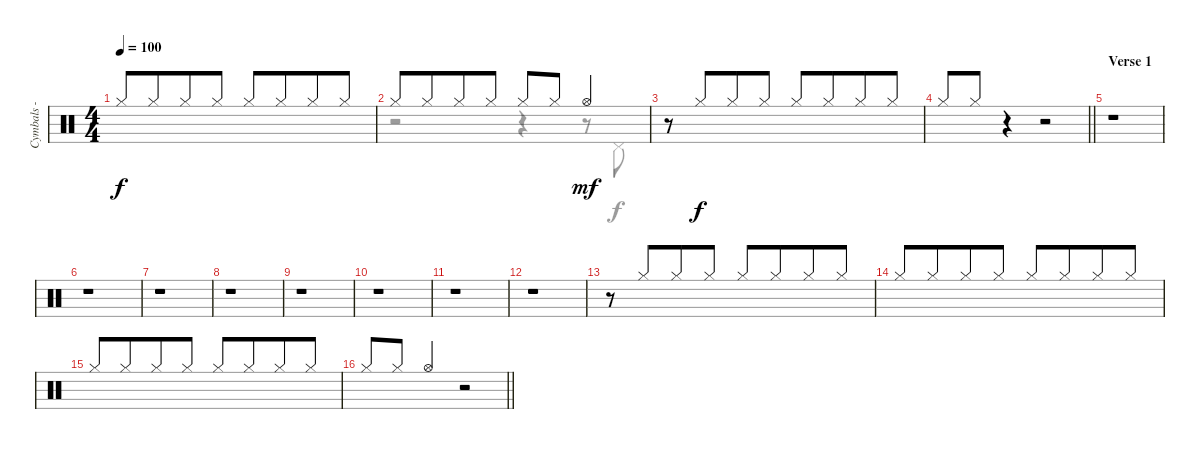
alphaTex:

\track ("Cymbals - Hi-Hat" "Cymbals - ") {instrument percussion}
\staff {score}
\articulation defaults
\voice
\ts (4 4)
\tempo 100
\clef neutral
\ks c "Hi-Hat (closed)".8{dy f beam Up} "Hi-Hat (closed)".8{beam Up beam merge} "Hi-Hat (closed)".8{beam Up} "Hi-Hat (closed)".8{beam Up} "Hi-Hat (closed)".8{beam Up} "Hi-Hat (closed)".8{beam Up beam merge} "Hi-Hat (closed)".8{beam Up} "Hi-Hat (closed)".8{beam Up}
|
"Hi-Hat (closed)".8 "Hi-Hat (closed)".8{beam merge} "Hi-Hat (closed)".8 "Hi-Hat (closed)".8 "Hi-Hat (closed)".8 "Hi-Hat (closed)".8{beam merge} "Hi-Hat (open)".4{dy mf} |
r.8 "Hi-Hat (closed)".8{dy f beam Up beam merge} "Hi-Hat (closed)".8{beam Up} "Hi-Hat (closed)".8{beam Up} "Hi-Hat (closed)".8{beam Up} "Hi-Hat (closed)".8{beam Up beam merge} "Hi-Hat (closed)".8{beam Up} "Hi-Hat (closed)".8{beam Up} |
\barLineRight lightlight "Hi-Hat (closed)".8{beam Up} "Hi-Hat (closed)".8{beam Up}
r.4 r.2 |
\section ("" "Verse 1")
r.1 |
r.1 |
r.1 |
r.1 |
r.1 |
r.1 |
r.1 |
r.1 |
r.8 "Hi-Hat (closed)".8{beam Up beam merge} "Hi-Hat (closed)".8{beam Up} "Hi-Hat (closed)".8{beam Up} "Hi-Hat (closed)".8{beam Up} "Hi-Hat (closed)".8{beam Up beam merge} "Hi-Hat (closed)".8{beam Up} "Hi-Hat (closed)".8{beam Up} |
"Hi-Hat (closed)".8{beam Up} "Hi-Hat (closed)".8{beam Up beam merge} "Hi-Hat (closed)".8{beam Up} "Hi-Hat (closed)".8{beam Up} "Hi-Hat (closed)".8{beam Up} "Hi-Hat (closed)".8{beam Up beam merge} "Hi-Hat (closed)".8{beam Up} "Hi-Hat (closed)".8{beam Up} |
"Hi-Hat (closed)".8{beam Up} "Hi-Hat (closed)".8{beam Up beam merge} "Hi-Hat (closed)".8{beam Up} "Hi-Hat (closed)".8{beam Up} "Hi-Hat (closed)".8{beam Up} "Hi-Hat (closed)".8{beam Up beam merge} "Hi-Hat (closed)".8{beam Up} "Hi-Hat (closed)".8{beam Up} |
\barLineRight lightlight "Hi-Hat (closed)".8{beam Up} "Hi-Hat (closed)".8{beam Up beam merge} "Hi-Hat (open)".4{beam Up}
r.2
\voice
\clef neutral
\ottava regular
\simile none
\ks c
|
r.2 r.4 r.8 "Pedal Hi-Hat (hit)".8 |
|
\barLineRight lightlight
|
|
|
|
|
|
|
|
|
|
|
|
\barLineRight lightlight
